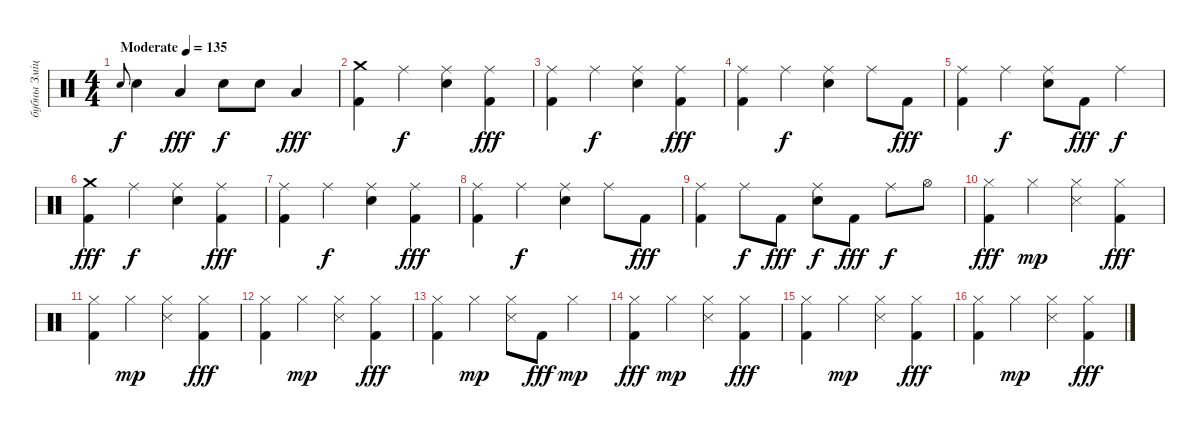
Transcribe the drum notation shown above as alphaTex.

\track ("бубны Змiцер" "бубны Змiц") {solo instrument percussion}
\staff {score}
\articulation defaults
\ts (4 4)
\tempo (135 "Moderate")
\clef neutral
\ks c "Electric Snare (hit)".8{gr onbeat dy f} "Electric Snare (hit)".4 "Low Tom (hit)".4{dy fff} "Electric Snare (hit)".8{dy f} "Electric Snare (hit)".8 "Low Tom (hit)".4{dy fff}
|
("Crash medium (hit)" "Kick (hit) 2").4 "Ride (middle)".4{dy f} ("Ride (middle)" "Electric Snare (hit)").4 ("Ride (middle)" "Kick (hit) 2").4{dy fff} |
("Ride (middle)" "Kick (hit) 2").4 "Ride (middle)".4{dy f} ("Ride (middle)" "Electric Snare (hit)").4 ("Ride (middle)" "Kick (hit) 2").4{dy fff} |
("Ride (middle)" "Kick (hit) 2").4 "Ride (middle)".4{dy f} ("Ride (middle)" "Electric Snare (hit)").4 "Ride (middle)".8 "Kick (hit) 2".8{dy fff} |
("Ride (middle)" "Kick (hit) 2").4 "Ride (middle)".4{dy f} ("Ride (middle)" "Electric Snare (hit)").8 "Kick (hit) 2".8{dy fff} "Ride (middle)".4{dy f} |
("Crash medium (hit)" "Kick (hit) 2").4{dy fff} "Ride (middle)".4{dy f} ("Ride (middle)" "Electric Snare (hit)").4 ("Ride (middle)" "Kick (hit) 2").4{dy fff} |
("Ride (middle)" "Kick (hit) 2").4 "Ride (middle)".4{dy f} ("Ride (middle)" "Electric Snare (hit)").4 ("Ride (middle)" "Kick (hit) 2").4{dy fff} |
("Ride (middle)" "Kick (hit) 2").4 "Ride (middle)".4{dy f} ("Ride (middle)" "Electric Snare (hit)").4 "Ride (middle)".8 "Kick (hit) 2".8{dy fff} |
("Ride (middle)" "Kick (hit) 2").4 "Ride (middle)".8{dy f} "Kick (hit) 2".8{dy fff} ("Ride (middle)" "Electric Snare (hit)").8{dy f} "Kick (hit) 2".8{dy fff} "Ride (middle)".8{dy f} "Hi-Hat (open)".8 |
("Hi-Hat (closed)" "Kick (hit) 2").4{dy fff} "Hi-Hat (closed)".4{dy mp} ("Hi-Hat (closed)" "Snare (side stick) 3").4 ("Hi-Hat (closed)" "Kick (hit) 2").4{dy fff} |
("Hi-Hat (closed)" "Kick (hit) 2").4 "Hi-Hat (closed)".4{dy mp} ("Hi-Hat (closed)" "Snare (side stick) 3").4 ("Hi-Hat (closed)" "Kick (hit) 2").4{dy fff} |
("Hi-Hat (closed)" "Kick (hit) 2").4 "Hi-Hat (closed)".4{dy mp} ("Hi-Hat (closed)" "Snare (side stick) 3").4 ("Hi-Hat (closed)" "Kick (hit) 2").4{dy fff} |
("Hi-Hat (closed)" "Kick (hit) 2").4 "Hi-Hat (closed)".4{dy mp} ("Hi-Hat (closed)" "Snare (side stick) 3").8 "Kick (hit) 2".8{dy fff} "Hi-Hat (closed)".4{dy mp} |
("Hi-Hat (closed)" "Kick (hit) 2").4{dy fff} "Hi-Hat (closed)".4{dy mp} ("Hi-Hat (closed)" "Snare (side stick) 3").4 ("Hi-Hat (closed)" "Kick (hit) 2").4{dy fff} |
("Hi-Hat (closed)" "Kick (hit) 2").4 "Hi-Hat (closed)".4{dy mp} ("Hi-Hat (closed)" "Snare (side stick) 3").4 ("Hi-Hat (closed)" "Kick (hit) 2").4{dy fff} |
("Hi-Hat (closed)" "Kick (hit) 2").4 "Hi-Hat (closed)".4{dy mp} ("Hi-Hat (closed)" "Snare (side stick) 3").4 ("Hi-Hat (closed)" "Kick (hit) 2").4{dy fff}
